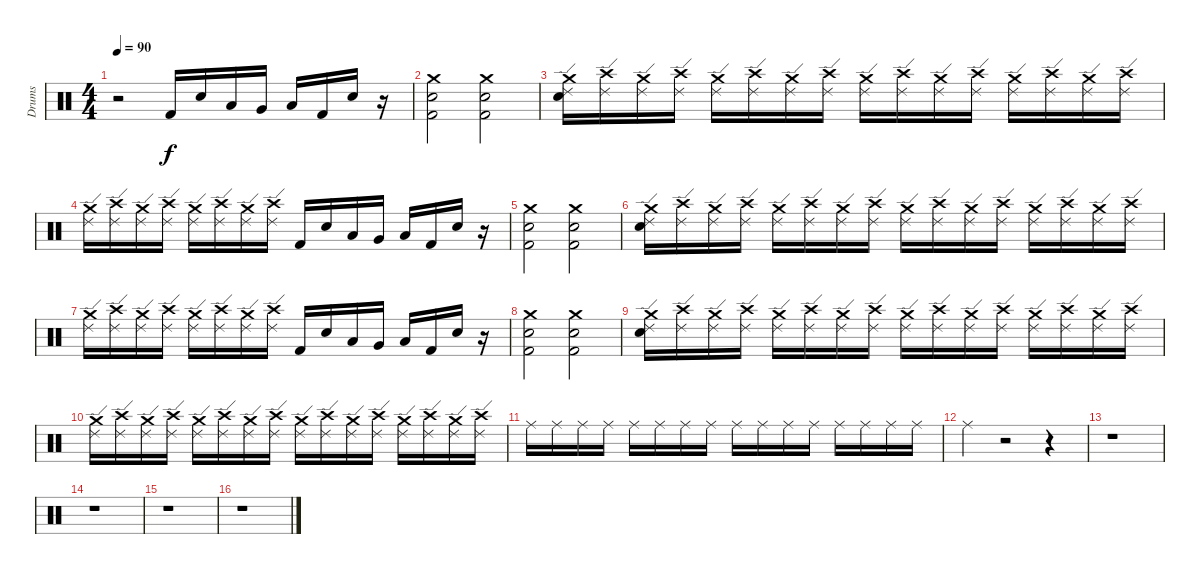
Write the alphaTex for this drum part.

\track ("Drums" "Drums") {instrument percussion}
\staff {score}
\articulation defaults
\ts (4 4)
\tempo 90
\clef neutral
\ks c
r.2{dy f} "Kick (hit) 2".16 "Electric Snare (hit)".16 "Low Tom (hit)".16 "Very Low Tom (hit)".16 "Low Floor Tom (hit)".16 "Kick (hit) 2".16 "Electric Snare (hit)".16 r.16 |
("Crash medium (hit)" "Electric Snare (hit)" "Kick (hit) 2").2 ("Crash medium (hit)" "Electric Snare (hit)" "Kick (hit) 2").2 |
("Electric Snare (hit)" "Ride (edge) 2" "Crash medium (hit)").16 ("Ride (edge) 2" "Crash high (hit)").16 ("Ride (edge) 2" "Crash medium (hit)").16 ("Ride (edge) 2" "Crash high (hit)").16 ("Ride (edge) 2" "Crash medium (hit)").16 ("Ride (edge) 2" "Crash high (hit)").16 ("Ride (edge) 2" "Crash medium (hit)").16 ("Ride (edge) 2" "Crash high (hit)").16 ("Ride (edge) 2" "Crash medium (hit)").16 ("Ride (edge) 2" "Crash high (hit)").16 ("Ride (edge) 2" "Crash medium (hit)").16 ("Ride (edge) 2" "Crash high (hit)").16 ("Ride (edge) 2" "Crash medium (hit)").16 ("Ride (edge) 2" "Crash high (hit)").16 ("Ride (edge) 2" "Crash medium (hit)").16 ("Ride (edge) 2" "Crash high (hit)").16 |
("Ride (edge) 2" "Crash medium (hit)").16 ("Ride (edge) 2" "Crash high (hit)").16 ("Ride (edge) 2" "Crash medium (hit)").16 ("Ride (edge) 2" "Crash high (hit)").16 ("Ride (edge) 2" "Crash medium (hit)").16 ("Ride (edge) 2" "Crash high (hit)").16 ("Ride (edge) 2" "Crash medium (hit)").16 ("Ride (edge) 2" "Crash high (hit)").16 "Kick (hit) 2".16 "Electric Snare (hit)".16 "Low Tom (hit)".16 "Very Low Tom (hit)".16 "Low Floor Tom (hit)".16 "Kick (hit) 2".16 "Electric Snare (hit)".16 r.16 |
("Crash medium (hit)" "Electric Snare (hit)" "Kick (hit) 2").2 ("Crash medium (hit)" "Electric Snare (hit)" "Kick (hit) 2").2 |
("Electric Snare (hit)" "Ride (edge) 2" "Crash medium (hit)").16 ("Ride (edge) 2" "Crash high (hit)").16 ("Ride (edge) 2" "Crash medium (hit)").16 ("Ride (edge) 2" "Crash high (hit)").16 ("Ride (edge) 2" "Crash medium (hit)").16 ("Ride (edge) 2" "Crash high (hit)").16 ("Ride (edge) 2" "Crash medium (hit)").16 ("Ride (edge) 2" "Crash high (hit)").16 ("Ride (edge) 2" "Crash medium (hit)").16 ("Ride (edge) 2" "Crash high (hit)").16 ("Ride (edge) 2" "Crash medium (hit)").16 ("Ride (edge) 2" "Crash high (hit)").16 ("Ride (edge) 2" "Crash medium (hit)").16 ("Ride (edge) 2" "Crash high (hit)").16 ("Ride (edge) 2" "Crash medium (hit)").16 ("Ride (edge) 2" "Crash high (hit)").16 |
("Ride (edge) 2" "Crash medium (hit)").16 ("Ride (edge) 2" "Crash high (hit)").16 ("Ride (edge) 2" "Crash medium (hit)").16 ("Ride (edge) 2" "Crash high (hit)").16 ("Ride (edge) 2" "Crash medium (hit)").16 ("Ride (edge) 2" "Crash high (hit)").16 ("Ride (edge) 2" "Crash medium (hit)").16 ("Ride (edge) 2" "Crash high (hit)").16 "Kick (hit) 2".16 "Electric Snare (hit)".16 "Low Tom (hit)".16 "Very Low Tom (hit)".16 "Low Floor Tom (hit)".16 "Kick (hit) 2".16 "Electric Snare (hit)".16 r.16 |
("Crash medium (hit)" "Electric Snare (hit)" "Kick (hit) 2").2 ("Crash medium (hit)" "Electric Snare (hit)" "Kick (hit) 2").2 |
("Electric Snare (hit)" "Ride (edge) 2" "Crash medium (hit)").16 ("Ride (edge) 2" "Crash high (hit)").16 ("Ride (edge) 2" "Crash medium (hit)").16 ("Ride (edge) 2" "Crash high (hit)").16 ("Ride (edge) 2" "Crash medium (hit)").16 ("Ride (edge) 2" "Crash high (hit)").16 ("Ride (edge) 2" "Crash medium (hit)").16 ("Ride (edge) 2" "Crash high (hit)").16 ("Ride (edge) 2" "Crash medium (hit)").16 ("Ride (edge) 2" "Crash high (hit)").16 ("Ride (edge) 2" "Crash medium (hit)").16 ("Ride (edge) 2" "Crash high (hit)").16 ("Ride (edge) 2" "Crash medium (hit)").16 ("Ride (edge) 2" "Crash high (hit)").16 ("Ride (edge) 2" "Crash medium (hit)").16 ("Ride (edge) 2" "Crash high (hit)").16 |
("Ride (edge) 2" "Crash medium (hit)").16 ("Ride (edge) 2" "Crash high (hit)").16 ("Ride (edge) 2" "Crash medium (hit)").16 ("Ride (edge) 2" "Crash high (hit)").16 ("Ride (edge) 2" "Crash medium (hit)").16 ("Ride (edge) 2" "Crash high (hit)").16 ("Ride (edge) 2" "Crash medium (hit)").16 ("Ride (edge) 2" "Crash high (hit)").16 ("Ride (edge) 2" "Crash medium (hit)").16 ("Ride (edge) 2" "Crash high (hit)").16 ("Ride (edge) 2" "Crash medium (hit)").16 ("Ride (edge) 2" "Crash high (hit)").16 ("Ride (edge) 2" "Crash medium (hit)").16 ("Ride (edge) 2" "Crash high (hit)").16 ("Ride (edge) 2" "Crash medium (hit)").16 ("Ride (edge) 2" "Crash high (hit)").16 |
"Ride (middle)".16 "Ride (middle)".16 "Ride (middle)".16 "Ride (middle)".16 "Ride (middle)".16 "Ride (middle)".16 "Ride (middle)".16 "Ride (middle)".16 "Ride (middle)".16 "Ride (middle)".16 "Ride (middle)".16 "Ride (middle)".16 "Ride (middle)".16 "Ride (middle)".16 "Ride (middle)".16 "Ride (middle)".16 |
"Ride (middle)".4 r.2 r.4 |
r.1 |
r.1 |
r.1 |
r.1
